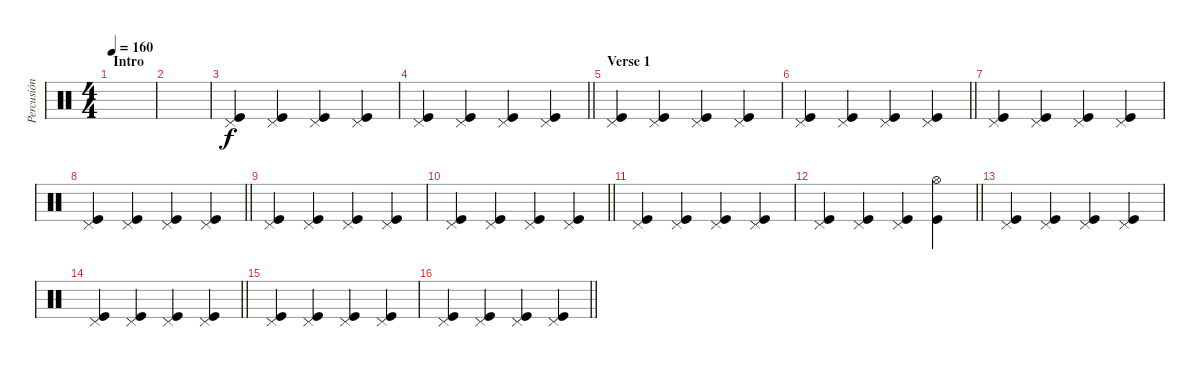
\track ("Percusión" "Percusión") {instrument percussion}
\staff {score}
\articulation defaults
\ts (4 4)
\section ("" "Intro")
\tempo 160
\clef neutral
\ks c
|
|
("Pedal Hi-Hat (hit)" "Kick (hit)").4 ("Pedal Hi-Hat (hit)" "Kick (hit)").4 ("Pedal Hi-Hat (hit)" "Kick (hit)").4 ("Pedal Hi-Hat (hit)" "Kick (hit)").4 |
\barLineRight lightlight
("Pedal Hi-Hat (hit)" "Kick (hit)").4 ("Pedal Hi-Hat (hit)" "Kick (hit)").4 ("Pedal Hi-Hat (hit)" "Kick (hit)").4 ("Pedal Hi-Hat (hit)" "Kick (hit)").4 |
\section ("" "Verse 1")
("Pedal Hi-Hat (hit)" "Kick (hit)").4 ("Pedal Hi-Hat (hit)" "Kick (hit)").4 ("Pedal Hi-Hat (hit)" "Kick (hit)").4 ("Pedal Hi-Hat (hit)" "Kick (hit)").4 |
\barLineRight lightlight
("Pedal Hi-Hat (hit)" "Kick (hit)").4 ("Pedal Hi-Hat (hit)" "Kick (hit)").4 ("Pedal Hi-Hat (hit)" "Kick (hit)").4 ("Pedal Hi-Hat (hit)" "Kick (hit)").4 |
("Pedal Hi-Hat (hit)" "Kick (hit)").4 ("Pedal Hi-Hat (hit)" "Kick (hit)").4 ("Pedal Hi-Hat (hit)" "Kick (hit)").4 ("Pedal Hi-Hat (hit)" "Kick (hit)").4 |
\barLineRight lightlight
("Pedal Hi-Hat (hit)" "Kick (hit)").4 ("Pedal Hi-Hat (hit)" "Kick (hit)").4 ("Pedal Hi-Hat (hit)" "Kick (hit)").4 ("Pedal Hi-Hat (hit)" "Kick (hit)").4 |
("Pedal Hi-Hat (hit)" "Kick (hit)").4 ("Pedal Hi-Hat (hit)" "Kick (hit)").4 ("Pedal Hi-Hat (hit)" "Kick (hit)").4 ("Pedal Hi-Hat (hit)" "Kick (hit)").4 |
\barLineRight lightlight
("Pedal Hi-Hat (hit)" "Kick (hit)").4 ("Pedal Hi-Hat (hit)" "Kick (hit)").4 ("Pedal Hi-Hat (hit)" "Kick (hit)").4 ("Pedal Hi-Hat (hit)" "Kick (hit)").4 |
("Pedal Hi-Hat (hit)" "Kick (hit)").4 ("Pedal Hi-Hat (hit)" "Kick (hit)").4 ("Pedal Hi-Hat (hit)" "Kick (hit)").4 ("Pedal Hi-Hat (hit)" "Kick (hit)").4 |
\barLineRight lightlight
("Pedal Hi-Hat (hit)" "Kick (hit)").4 ("Pedal Hi-Hat (hit)" "Kick (hit)").4 ("Pedal Hi-Hat (hit)" "Kick (hit)").4 ("Hi-Hat (open)" "Kick (hit)").4 |
("Pedal Hi-Hat (hit)" "Kick (hit)").4 ("Pedal Hi-Hat (hit)" "Kick (hit)").4 ("Pedal Hi-Hat (hit)" "Kick (hit)").4 ("Pedal Hi-Hat (hit)" "Kick (hit)").4 |
\barLineRight lightlight
("Pedal Hi-Hat (hit)" "Kick (hit)").4 ("Pedal Hi-Hat (hit)" "Kick (hit)").4 ("Pedal Hi-Hat (hit)" "Kick (hit)").4 ("Pedal Hi-Hat (hit)" "Kick (hit)").4 |
("Pedal Hi-Hat (hit)" "Kick (hit)").4 ("Pedal Hi-Hat (hit)" "Kick (hit)").4 ("Pedal Hi-Hat (hit)" "Kick (hit)").4 ("Pedal Hi-Hat (hit)" "Kick (hit)").4 |
\barLineRight lightlight
("Pedal Hi-Hat (hit)" "Kick (hit)").4 ("Pedal Hi-Hat (hit)" "Kick (hit)").4 ("Pedal Hi-Hat (hit)" "Kick (hit)").4 ("Pedal Hi-Hat (hit)" "Kick (hit)").4
